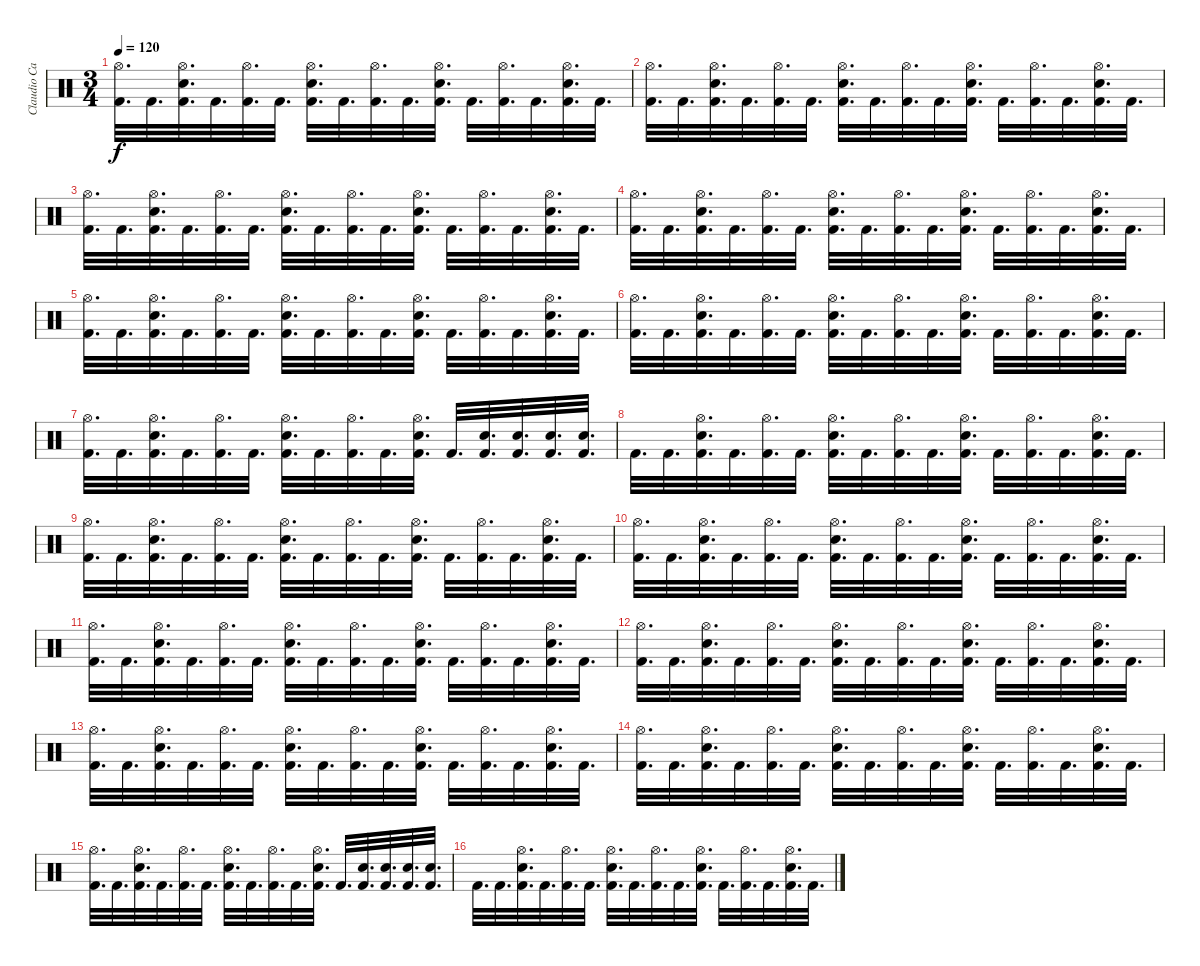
\track ("Claudio Cardacci" "Claudio Ca") {instrument percussion}
\staff {score}
\articulation defaults
\ts (3 4)
\tempo 120
\clef neutral
\ks c
("Hi-Hat (open)" "Kick (hit) 2").32{d dy f} "Kick (hit) 2".32{d} ("Snare (hit) 2" "Hi-Hat (open)" "Kick (hit) 2").32{d} "Kick (hit) 2".32{d} ("Hi-Hat (open)" "Kick (hit) 2").32{d} "Kick (hit) 2".32{d} ("Snare (hit) 2" "Hi-Hat (open)" "Kick (hit) 2").32{d} "Kick (hit) 2".32{d} ("Hi-Hat (open)" "Kick (hit) 2").32{d} "Kick (hit) 2".32{d} ("Snare (hit) 2" "Hi-Hat (open)" "Kick (hit) 2").32{d} "Kick (hit) 2".32{d} ("Hi-Hat (open)" "Kick (hit) 2").32{d} "Kick (hit) 2".32{d} ("Snare (hit) 2" "Hi-Hat (open)" "Kick (hit) 2").32{d} "Kick (hit) 2".32{d} |
("Hi-Hat (open)" "Kick (hit) 2").32{d} "Kick (hit) 2".32{d} ("Snare (hit) 2" "Hi-Hat (open)" "Kick (hit) 2").32{d} "Kick (hit) 2".32{d} ("Hi-Hat (open)" "Kick (hit) 2").32{d} "Kick (hit) 2".32{d} ("Snare (hit) 2" "Hi-Hat (open)" "Kick (hit) 2").32{d} "Kick (hit) 2".32{d} ("Hi-Hat (open)" "Kick (hit) 2").32{d} "Kick (hit) 2".32{d} ("Snare (hit) 2" "Hi-Hat (open)" "Kick (hit) 2").32{d} "Kick (hit) 2".32{d} ("Hi-Hat (open)" "Kick (hit) 2").32{d} "Kick (hit) 2".32{d} ("Snare (hit) 2" "Hi-Hat (open)" "Kick (hit) 2").32{d} "Kick (hit) 2".32{d} |
("Hi-Hat (open)" "Kick (hit) 2").32{d} "Kick (hit) 2".32{d} ("Snare (hit) 2" "Hi-Hat (open)" "Kick (hit) 2").32{d} "Kick (hit) 2".32{d} ("Hi-Hat (open)" "Kick (hit) 2").32{d} "Kick (hit) 2".32{d} ("Snare (hit) 2" "Hi-Hat (open)" "Kick (hit) 2").32{d} "Kick (hit) 2".32{d} ("Hi-Hat (open)" "Kick (hit) 2").32{d} "Kick (hit) 2".32{d} ("Snare (hit) 2" "Hi-Hat (open)" "Kick (hit) 2").32{d} "Kick (hit) 2".32{d} ("Hi-Hat (open)" "Kick (hit) 2").32{d} "Kick (hit) 2".32{d} ("Snare (hit) 2" "Hi-Hat (open)" "Kick (hit) 2").32{d} "Kick (hit) 2".32{d} |
("Hi-Hat (open)" "Kick (hit) 2").32{d} "Kick (hit) 2".32{d} ("Snare (hit) 2" "Hi-Hat (open)" "Kick (hit) 2").32{d} "Kick (hit) 2".32{d} ("Hi-Hat (open)" "Kick (hit) 2").32{d} "Kick (hit) 2".32{d} ("Snare (hit) 2" "Hi-Hat (open)" "Kick (hit) 2").32{d} "Kick (hit) 2".32{d} ("Hi-Hat (open)" "Kick (hit) 2").32{d} "Kick (hit) 2".32{d} ("Snare (hit) 2" "Hi-Hat (open)" "Kick (hit) 2").32{d} "Kick (hit) 2".32{d} ("Hi-Hat (open)" "Kick (hit) 2").32{d} "Kick (hit) 2".32{d} ("Snare (hit) 2" "Hi-Hat (open)" "Kick (hit) 2").32{d} "Kick (hit) 2".32{d} |
("Hi-Hat (open)" "Kick (hit) 2").32{d} "Kick (hit) 2".32{d} ("Snare (hit) 2" "Hi-Hat (open)" "Kick (hit) 2").32{d} "Kick (hit) 2".32{d} ("Hi-Hat (open)" "Kick (hit) 2").32{d} "Kick (hit) 2".32{d} ("Snare (hit) 2" "Hi-Hat (open)" "Kick (hit) 2").32{d} "Kick (hit) 2".32{d} ("Hi-Hat (open)" "Kick (hit) 2").32{d} "Kick (hit) 2".32{d} ("Snare (hit) 2" "Hi-Hat (open)" "Kick (hit) 2").32{d} "Kick (hit) 2".32{d} ("Hi-Hat (open)" "Kick (hit) 2").32{d} "Kick (hit) 2".32{d} ("Snare (hit) 2" "Hi-Hat (open)" "Kick (hit) 2").32{d} "Kick (hit) 2".32{d} |
("Hi-Hat (open)" "Kick (hit) 2").32{d} "Kick (hit) 2".32{d} ("Snare (hit) 2" "Hi-Hat (open)" "Kick (hit) 2").32{d} "Kick (hit) 2".32{d} ("Hi-Hat (open)" "Kick (hit) 2").32{d} "Kick (hit) 2".32{d} ("Snare (hit) 2" "Hi-Hat (open)" "Kick (hit) 2").32{d} "Kick (hit) 2".32{d} ("Hi-Hat (open)" "Kick (hit) 2").32{d} "Kick (hit) 2".32{d} ("Snare (hit) 2" "Hi-Hat (open)" "Kick (hit) 2").32{d} "Kick (hit) 2".32{d} ("Hi-Hat (open)" "Kick (hit) 2").32{d} "Kick (hit) 2".32{d} ("Snare (hit) 2" "Hi-Hat (open)" "Kick (hit) 2").32{d} "Kick (hit) 2".32{d} |
("Hi-Hat (open)" "Kick (hit) 2").32{d} "Kick (hit) 2".32{d} ("Snare (hit) 2" "Hi-Hat (open)" "Kick (hit) 2").32{d} "Kick (hit) 2".32{d} ("Hi-Hat (open)" "Kick (hit) 2").32{d} "Kick (hit) 2".32{d} ("Snare (hit) 2" "Hi-Hat (open)" "Kick (hit) 2").32{d} "Kick (hit) 2".32{d} ("Hi-Hat (open)" "Kick (hit) 2").32{d} "Kick (hit) 2".32{d} ("Snare (hit) 2" "Hi-Hat (open)" "Kick (hit) 2").32{d} "Kick (hit) 2".32{d} ("Snare (hit) 2" "Kick (hit) 2").32{d} ("Snare (hit) 2" "Kick (hit) 2").32{d} ("Snare (hit) 2" "Kick (hit) 2").32{d} ("Snare (hit) 2" "Kick (hit) 2").32{d} |
"Kick (hit) 2".32{d} "Kick (hit) 2".32{d} ("Snare (hit) 2" "Hi-Hat (open)" "Kick (hit) 2").32{d} "Kick (hit) 2".32{d} ("Hi-Hat (open)" "Kick (hit) 2").32{d} "Kick (hit) 2".32{d} ("Snare (hit) 2" "Hi-Hat (open)" "Kick (hit) 2").32{d} "Kick (hit) 2".32{d} ("Hi-Hat (open)" "Kick (hit) 2").32{d} "Kick (hit) 2".32{d} ("Snare (hit) 2" "Hi-Hat (open)" "Kick (hit) 2").32{d} "Kick (hit) 2".32{d} ("Hi-Hat (open)" "Kick (hit) 2").32{d} "Kick (hit) 2".32{d} ("Snare (hit) 2" "Hi-Hat (open)" "Kick (hit) 2").32{d} "Kick (hit) 2".32{d} |
("Hi-Hat (open)" "Kick (hit) 2").32{d} "Kick (hit) 2".32{d} ("Snare (hit) 2" "Hi-Hat (open)" "Kick (hit) 2").32{d} "Kick (hit) 2".32{d} ("Hi-Hat (open)" "Kick (hit) 2").32{d} "Kick (hit) 2".32{d} ("Snare (hit) 2" "Hi-Hat (open)" "Kick (hit) 2").32{d} "Kick (hit) 2".32{d} ("Hi-Hat (open)" "Kick (hit) 2").32{d} "Kick (hit) 2".32{d} ("Snare (hit) 2" "Hi-Hat (open)" "Kick (hit) 2").32{d} "Kick (hit) 2".32{d} ("Hi-Hat (open)" "Kick (hit) 2").32{d} "Kick (hit) 2".32{d} ("Snare (hit) 2" "Hi-Hat (open)" "Kick (hit) 2").32{d} "Kick (hit) 2".32{d} |
("Hi-Hat (open)" "Kick (hit) 2").32{d} "Kick (hit) 2".32{d} ("Snare (hit) 2" "Hi-Hat (open)" "Kick (hit) 2").32{d} "Kick (hit) 2".32{d} ("Hi-Hat (open)" "Kick (hit) 2").32{d} "Kick (hit) 2".32{d} ("Snare (hit) 2" "Hi-Hat (open)" "Kick (hit) 2").32{d} "Kick (hit) 2".32{d} ("Hi-Hat (open)" "Kick (hit) 2").32{d} "Kick (hit) 2".32{d} ("Snare (hit) 2" "Hi-Hat (open)" "Kick (hit) 2").32{d} "Kick (hit) 2".32{d} ("Hi-Hat (open)" "Kick (hit) 2").32{d} "Kick (hit) 2".32{d} ("Snare (hit) 2" "Hi-Hat (open)" "Kick (hit) 2").32{d} "Kick (hit) 2".32{d} |
("Hi-Hat (open)" "Kick (hit) 2").32{d} "Kick (hit) 2".32{d} ("Snare (hit) 2" "Hi-Hat (open)" "Kick (hit) 2").32{d} "Kick (hit) 2".32{d} ("Hi-Hat (open)" "Kick (hit) 2").32{d} "Kick (hit) 2".32{d} ("Snare (hit) 2" "Hi-Hat (open)" "Kick (hit) 2").32{d} "Kick (hit) 2".32{d} ("Hi-Hat (open)" "Kick (hit) 2").32{d} "Kick (hit) 2".32{d} ("Snare (hit) 2" "Hi-Hat (open)" "Kick (hit) 2").32{d} "Kick (hit) 2".32{d} ("Hi-Hat (open)" "Kick (hit) 2").32{d} "Kick (hit) 2".32{d} ("Snare (hit) 2" "Hi-Hat (open)" "Kick (hit) 2").32{d} "Kick (hit) 2".32{d} |
("Hi-Hat (open)" "Kick (hit) 2").32{d} "Kick (hit) 2".32{d} ("Snare (hit) 2" "Hi-Hat (open)" "Kick (hit) 2").32{d} "Kick (hit) 2".32{d} ("Hi-Hat (open)" "Kick (hit) 2").32{d} "Kick (hit) 2".32{d} ("Snare (hit) 2" "Hi-Hat (open)" "Kick (hit) 2").32{d} "Kick (hit) 2".32{d} ("Hi-Hat (open)" "Kick (hit) 2").32{d} "Kick (hit) 2".32{d} ("Snare (hit) 2" "Hi-Hat (open)" "Kick (hit) 2").32{d} "Kick (hit) 2".32{d} ("Hi-Hat (open)" "Kick (hit) 2").32{d} "Kick (hit) 2".32{d} ("Snare (hit) 2" "Hi-Hat (open)" "Kick (hit) 2").32{d} "Kick (hit) 2".32{d} |
("Hi-Hat (open)" "Kick (hit) 2").32{d} "Kick (hit) 2".32{d} ("Snare (hit) 2" "Hi-Hat (open)" "Kick (hit) 2").32{d} "Kick (hit) 2".32{d} ("Hi-Hat (open)" "Kick (hit) 2").32{d} "Kick (hit) 2".32{d} ("Snare (hit) 2" "Hi-Hat (open)" "Kick (hit) 2").32{d} "Kick (hit) 2".32{d} ("Hi-Hat (open)" "Kick (hit) 2").32{d} "Kick (hit) 2".32{d} ("Snare (hit) 2" "Hi-Hat (open)" "Kick (hit) 2").32{d} "Kick (hit) 2".32{d} ("Hi-Hat (open)" "Kick (hit) 2").32{d} "Kick (hit) 2".32{d} ("Snare (hit) 2" "Hi-Hat (open)" "Kick (hit) 2").32{d} "Kick (hit) 2".32{d} |
("Hi-Hat (open)" "Kick (hit) 2").32{d} "Kick (hit) 2".32{d} ("Snare (hit) 2" "Hi-Hat (open)" "Kick (hit) 2").32{d} "Kick (hit) 2".32{d} ("Hi-Hat (open)" "Kick (hit) 2").32{d} "Kick (hit) 2".32{d} ("Snare (hit) 2" "Hi-Hat (open)" "Kick (hit) 2").32{d} "Kick (hit) 2".32{d} ("Hi-Hat (open)" "Kick (hit) 2").32{d} "Kick (hit) 2".32{d} ("Snare (hit) 2" "Hi-Hat (open)" "Kick (hit) 2").32{d} "Kick (hit) 2".32{d} ("Hi-Hat (open)" "Kick (hit) 2").32{d} "Kick (hit) 2".32{d} ("Snare (hit) 2" "Hi-Hat (open)" "Kick (hit) 2").32{d} "Kick (hit) 2".32{d} |
("Hi-Hat (open)" "Kick (hit) 2").32{d} "Kick (hit) 2".32{d} ("Snare (hit) 2" "Hi-Hat (open)" "Kick (hit) 2").32{d} "Kick (hit) 2".32{d} ("Hi-Hat (open)" "Kick (hit) 2").32{d} "Kick (hit) 2".32{d} ("Snare (hit) 2" "Hi-Hat (open)" "Kick (hit) 2").32{d} "Kick (hit) 2".32{d} ("Hi-Hat (open)" "Kick (hit) 2").32{d} "Kick (hit) 2".32{d} ("Snare (hit) 2" "Hi-Hat (open)" "Kick (hit) 2").32{d} "Kick (hit) 2".32{d} ("Snare (hit) 2" "Kick (hit) 2").32{d} ("Snare (hit) 2" "Kick (hit) 2").32{d} ("Snare (hit) 2" "Kick (hit) 2").32{d} ("Snare (hit) 2" "Kick (hit) 2").32{d} |
"Kick (hit) 2".32{d} "Kick (hit) 2".32{d} ("Snare (hit) 2" "Hi-Hat (open)" "Kick (hit) 2").32{d} "Kick (hit) 2".32{d} ("Hi-Hat (open)" "Kick (hit) 2").32{d} "Kick (hit) 2".32{d} ("Snare (hit) 2" "Hi-Hat (open)" "Kick (hit) 2").32{d} "Kick (hit) 2".32{d} ("Hi-Hat (open)" "Kick (hit) 2").32{d} "Kick (hit) 2".32{d} ("Snare (hit) 2" "Hi-Hat (open)" "Kick (hit) 2").32{d} "Kick (hit) 2".32{d} ("Hi-Hat (open)" "Kick (hit) 2").32{d} "Kick (hit) 2".32{d} ("Snare (hit) 2" "Hi-Hat (open)" "Kick (hit) 2").32{d} "Kick (hit) 2".32{d}
